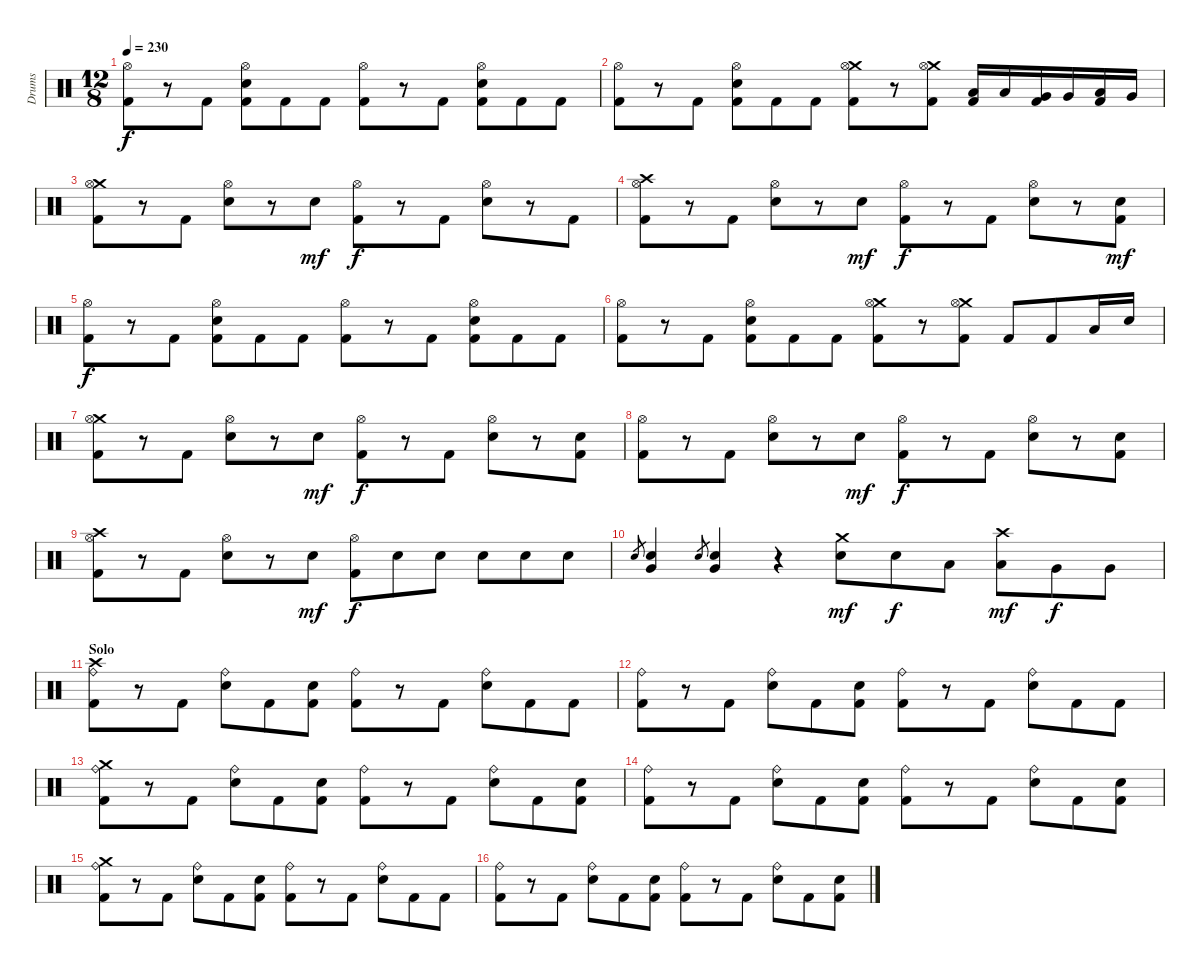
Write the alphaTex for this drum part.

\track ("Drums" "Drums") {instrument percussion}
\staff {score}
\articulation defaults
\ts (12 8)
\tempo 230
\clef neutral
\ks c
("Hi-Hat (open)" "Kick (hit) 2").8{dy f} r.8 "Kick (hit) 2".8 ("Hi-Hat (open)" "Snare (hit) 2" "Kick (hit) 2").8 "Kick (hit) 2".8 "Kick (hit) 2".8 ("Hi-Hat (open)" "Kick (hit) 2").8 r.8 "Kick (hit) 2".8 ("Hi-Hat (open)" "Snare (hit) 2" "Kick (hit) 2").8 "Kick (hit) 2".8 "Kick (hit) 2".8 |
("Hi-Hat (open)" "Kick (hit) 2").8 r.8 "Kick (hit) 2".8 ("Hi-Hat (open)" "Snare (hit) 2" "Kick (hit) 2").8 "Kick (hit) 2".8 "Kick (hit) 2".8 ("Crash medium (hit)" "Hi-Hat (open)" "Kick (hit) 2").8 r.8 ("Crash medium (hit)" "Hi-Hat (open)" "Kick (hit) 2").8 ("Low Floor Tom (hit)" "Kick (hit) 2").16 "Low Floor Tom (hit)".16 ("Very Low Tom (hit)" "Kick (hit) 2").16 "Very Low Tom (hit)".16 ("Low Tom (hit)" "Kick (hit) 2").16 "Very Low Tom (hit)".16 |
("Crash medium (hit)" "Hi-Hat (open)" "Kick (hit) 2").8 r.8 "Kick (hit) 2".8 ("Hi-Hat (open)" "Snare (hit) 2").8 r.8 "Snare (hit) 2".8{dy mf} ("Hi-Hat (open)" "Kick (hit) 2").8{dy f} r.8 "Kick (hit) 2".8 ("Hi-Hat (open)" "Snare (hit) 2").8 r.8 "Kick (hit) 2".8 |
("Crash high (hit)" "Hi-Hat (open)" "Kick (hit) 2").8 r.8 "Kick (hit) 2".8 ("Hi-Hat (open)" "Snare (hit) 2").8 r.8 "Snare (hit) 2".8{dy mf} ("Hi-Hat (open)" "Kick (hit) 2").8{dy f} r.8 "Kick (hit) 2".8 ("Hi-Hat (open)" "Snare (hit) 2").8 r.8 ("Snare (hit) 2" "Kick (hit) 2").8{dy mf} |
("Hi-Hat (open)" "Kick (hit) 2").8{dy f} r.8 "Kick (hit) 2".8 ("Hi-Hat (open)" "Snare (hit) 2" "Kick (hit) 2").8 "Kick (hit) 2".8 "Kick (hit) 2".8 ("Hi-Hat (open)" "Kick (hit) 2").8 r.8 "Kick (hit) 2".8 ("Hi-Hat (open)" "Snare (hit) 2" "Kick (hit) 2").8 "Kick (hit) 2".8 "Kick (hit) 2".8 |
("Hi-Hat (open)" "Kick (hit) 2").8 r.8 "Kick (hit) 2".8 ("Hi-Hat (open)" "Snare (hit) 2" "Kick (hit) 2").8 "Kick (hit) 2".8 "Kick (hit) 2".8 ("Crash medium (hit)" "Hi-Hat (open)" "Kick (hit) 2").8 r.8 ("Crash medium (hit)" "Hi-Hat (open)" "Kick (hit) 2").8 "Kick (hit) 2".8 "Kick (hit) 2".8 "Low Tom (hit)".16 "Snare (hit) 2".16 |
("Crash medium (hit)" "Hi-Hat (open)" "Kick (hit) 2").8 r.8 "Kick (hit) 2".8 ("Hi-Hat (open)" "Snare (hit) 2").8 r.8 "Snare (hit) 2".8{dy mf} ("Hi-Hat (open)" "Kick (hit) 2").8{dy f} r.8 "Kick (hit) 2".8 ("Hi-Hat (open)" "Snare (hit) 2").8 r.8 ("Snare (hit) 2" "Kick (hit) 2").8 |
("Hi-Hat (open)" "Kick (hit) 2").8 r.8 "Kick (hit) 2".8 ("Hi-Hat (open)" "Snare (hit) 2").8 r.8 "Snare (hit) 2".8{dy mf} ("Hi-Hat (open)" "Kick (hit) 2").8{dy f} r.8 "Kick (hit) 2".8 ("Hi-Hat (open)" "Snare (hit) 2").8 r.8 ("Snare (hit) 2" "Kick (hit) 2").8 |
("Crash high (hit)" "Hi-Hat (open)" "Kick (hit) 2").8 r.8 "Kick (hit) 2".8 ("Hi-Hat (open)" "Snare (hit) 2").8 r.8 "Snare (hit) 2".8{dy mf} ("Hi-Hat (open)" "Kick (hit) 2").8{dy f} "Snare (hit) 2".8 "Snare (hit) 2".8 "Snare (hit) 2".8 "Snare (hit) 2".8 "Snare (hit) 2".8 |
"Snare (hit) 2".8{gr} ("Snare (hit) 2" "Very Low Tom (hit)").4 "Snare (hit) 2".8{gr} ("Snare (hit) 2" "Very Low Tom (hit)").4 r.4 ("Crash medium (hit)" "Snare (hit) 2").8{dy mf} "Snare (hit) 2".8{dy f} "Low Tom (hit)".8 ("Crash high (hit)" "Low Tom (hit)").8{dy mf} "Very Low Tom (hit)".8{dy f} "Very Low Tom (hit)".8 |
\section ("" "Solo")
("Crash high (hit)" "Ride (bell)" "Kick (hit) 2").8 r.8 "Kick (hit) 2".8 ("Ride (bell)" "Snare (hit) 2").8 "Kick (hit) 2".8 ("Snare (hit) 2" "Kick (hit) 2").8 ("Ride (bell)" "Kick (hit) 2").8 r.8 "Kick (hit) 2".8 ("Ride (bell)" "Snare (hit) 2").8 "Kick (hit) 2".8 "Kick (hit) 2".8 |
("Ride (bell)" "Kick (hit) 2").8 r.8 "Kick (hit) 2".8 ("Ride (bell)" "Snare (hit) 2").8 "Kick (hit) 2".8 ("Snare (hit) 2" "Kick (hit) 2").8 ("Ride (bell)" "Kick (hit) 2").8 r.8 "Kick (hit) 2".8 ("Ride (bell)" "Snare (hit) 2").8 "Kick (hit) 2".8 "Kick (hit) 2".8 |
("Crash medium (hit)" "Ride (bell)" "Kick (hit) 2").8 r.8 "Kick (hit) 2".8 ("Ride (bell)" "Snare (hit) 2").8 "Kick (hit) 2".8 ("Snare (hit) 2" "Kick (hit) 2").8 ("Ride (bell)" "Kick (hit) 2").8 r.8 "Kick (hit) 2".8 ("Ride (bell)" "Snare (hit) 2").8 "Kick (hit) 2".8 ("Snare (hit) 2" "Kick (hit) 2").8 |
("Ride (bell)" "Kick (hit) 2").8 r.8 "Kick (hit) 2".8 ("Ride (bell)" "Snare (hit) 2").8 "Kick (hit) 2".8 ("Snare (hit) 2" "Kick (hit) 2").8 ("Ride (bell)" "Kick (hit) 2").8 r.8 "Kick (hit) 2".8 ("Ride (bell)" "Snare (hit) 2").8 "Kick (hit) 2".8 ("Snare (hit) 2" "Kick (hit) 2").8 |
("Crash medium (hit)" "Ride (bell)" "Kick (hit) 2").8 r.8 "Kick (hit) 2".8 ("Ride (bell)" "Snare (hit) 2").8 "Kick (hit) 2".8 ("Snare (hit) 2" "Kick (hit) 2").8 ("Ride (bell)" "Kick (hit) 2").8 r.8 "Kick (hit) 2".8 ("Ride (bell)" "Snare (hit) 2").8 "Kick (hit) 2".8 "Kick (hit) 2".8 |
("Ride (bell)" "Kick (hit) 2").8 r.8 "Kick (hit) 2".8 ("Ride (bell)" "Snare (hit) 2").8 "Kick (hit) 2".8 ("Snare (hit) 2" "Kick (hit) 2").8 ("Ride (bell)" "Kick (hit) 2").8 r.8 "Kick (hit) 2".8 ("Ride (bell)" "Snare (hit) 2").8 "Kick (hit) 2".8 ("Snare (hit) 2" "Kick (hit) 2").8
